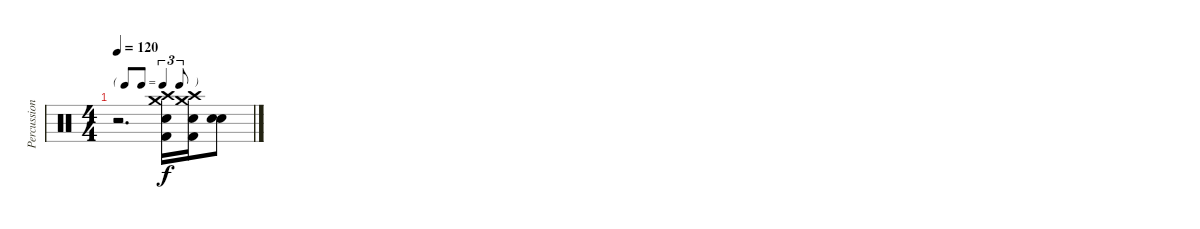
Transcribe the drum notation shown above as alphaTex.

\track ("Percussions" "Percussion") {instrument percussion}
\staff {score}
\articulation defaults
\ts (4 4)
\tf triplet8th
\tempo 120
\clef neutral
\ks c
r.2{d dy f} ("Crash medium (hit)" "Crash high (hit)" "Snare (hit) 2" "Kick (hit) 2").16 ("Crash medium (hit)" "Crash high (hit)" "Snare (hit) 2" "Kick (hit) 2").16 ("Snare (hit)"{x} "Snare (hit)"{x}).8
